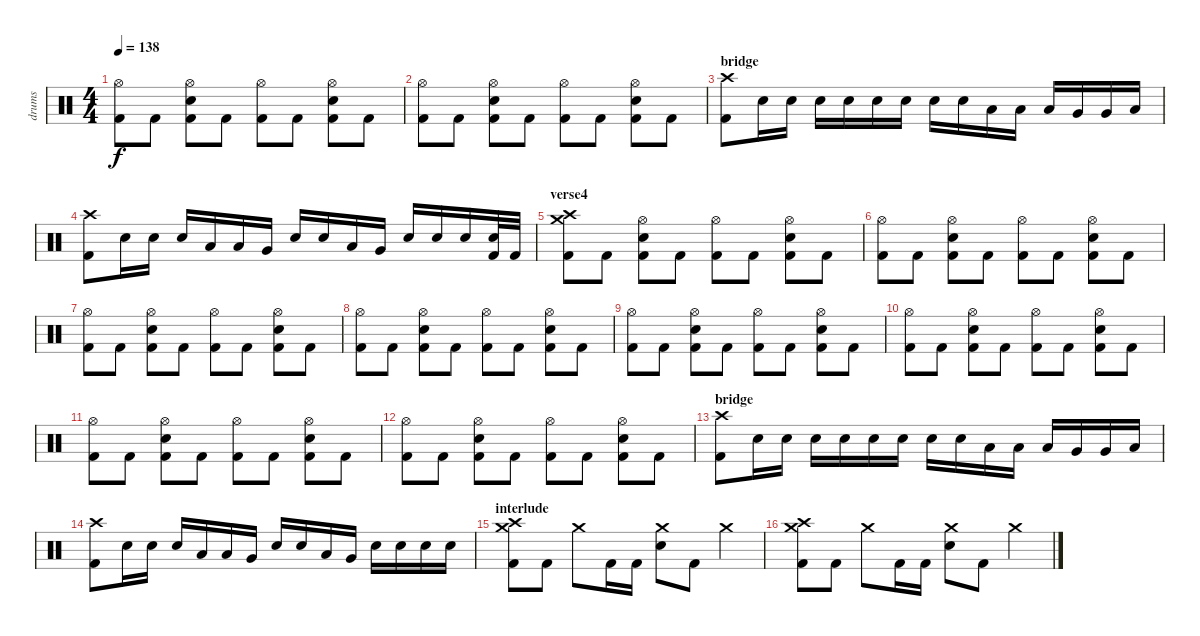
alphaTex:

\track ("drums" "drums") {instrument percussion}
\staff {score}
\articulation defaults
\ts (4 4)
\tempo 138
\clef neutral
\ks c
("Hi-Hat (open)" "Kick (hit) 2").8{dy f} "Kick (hit) 2".8 ("Hi-Hat (open)" "Electric Snare (hit)" "Kick (hit) 2").8 "Kick (hit) 2".8 ("Hi-Hat (open)" "Kick (hit) 2").8 "Kick (hit) 2".8 ("Hi-Hat (open)" "Electric Snare (hit)" "Kick (hit) 2").8 "Kick (hit) 2".8 |
("Hi-Hat (open)" "Kick (hit) 2").8 "Kick (hit) 2".8 ("Hi-Hat (open)" "Electric Snare (hit)" "Kick (hit) 2").8 "Kick (hit) 2".8 ("Hi-Hat (open)" "Kick (hit) 2").8 "Kick (hit) 2".8 ("Hi-Hat (open)" "Electric Snare (hit)" "Kick (hit) 2").8 "Kick (hit) 2".8 |
\section ("" "bridge")
("Crash high (hit)" "Kick (hit) 2").8 "Electric Snare (hit)".16 "Electric Snare (hit)".16 "Electric Snare (hit)".16 "Electric Snare (hit)".16 "Electric Snare (hit)".16 "Electric Snare (hit)".16 "Electric Snare (hit)".16 "Electric Snare (hit)".16 "Low Tom (hit)".16 "Low Tom (hit)".16 "Low Tom (hit)".16 "Very Low Tom (hit)".16 "Very Low Tom (hit)".16 "Low Floor Tom (hit)".16 |
("Crash high (hit)" "Kick (hit) 2").8 "Electric Snare (hit)".16 "Electric Snare (hit)".16 "Electric Snare (hit)".16 "Low Tom (hit)".16 "Low Tom (hit)".16 "Very Low Tom (hit)".16 "Electric Snare (hit)".16 "Electric Snare (hit)".16 "Low Tom (hit)".16 "Very Low Tom (hit)".16 "Electric Snare (hit)".16 "Electric Snare (hit)".16 "Electric Snare (hit)".16 ("Electric Snare (hit)" "Kick (hit) 2").32 "Kick (hit) 2".32 |
\section ("" "verse4")
("Crash high (hit)" "Crash medium (hit)" "Kick (hit) 2").8 "Kick (hit) 2".8 ("Hi-Hat (open)" "Electric Snare (hit)" "Kick (hit) 2").8 "Kick (hit) 2".8 ("Hi-Hat (open)" "Kick (hit) 2").8 "Kick (hit) 2".8 ("Hi-Hat (open)" "Electric Snare (hit)" "Kick (hit) 2").8 "Kick (hit) 2".8 |
("Hi-Hat (open)" "Kick (hit) 2").8 "Kick (hit) 2".8 ("Hi-Hat (open)" "Electric Snare (hit)" "Kick (hit) 2").8 "Kick (hit) 2".8 ("Hi-Hat (open)" "Kick (hit) 2").8 "Kick (hit) 2".8 ("Hi-Hat (open)" "Electric Snare (hit)" "Kick (hit) 2").8 "Kick (hit) 2".8 |
("Hi-Hat (open)" "Kick (hit) 2").8 "Kick (hit) 2".8 ("Hi-Hat (open)" "Electric Snare (hit)" "Kick (hit) 2").8 "Kick (hit) 2".8 ("Hi-Hat (open)" "Kick (hit) 2").8 "Kick (hit) 2".8 ("Hi-Hat (open)" "Electric Snare (hit)" "Kick (hit) 2").8 "Kick (hit) 2".8 |
("Hi-Hat (open)" "Kick (hit) 2").8 "Kick (hit) 2".8 ("Hi-Hat (open)" "Electric Snare (hit)" "Kick (hit) 2").8 "Kick (hit) 2".8 ("Hi-Hat (open)" "Kick (hit) 2").8 "Kick (hit) 2".8 ("Hi-Hat (open)" "Electric Snare (hit)" "Kick (hit) 2").8 "Kick (hit) 2".8 |
("Hi-Hat (open)" "Kick (hit) 2").8 "Kick (hit) 2".8 ("Hi-Hat (open)" "Electric Snare (hit)" "Kick (hit) 2").8 "Kick (hit) 2".8 ("Hi-Hat (open)" "Kick (hit) 2").8 "Kick (hit) 2".8 ("Hi-Hat (open)" "Electric Snare (hit)" "Kick (hit) 2").8 "Kick (hit) 2".8 |
("Hi-Hat (open)" "Kick (hit) 2").8 "Kick (hit) 2".8 ("Hi-Hat (open)" "Electric Snare (hit)" "Kick (hit) 2").8 "Kick (hit) 2".8 ("Hi-Hat (open)" "Kick (hit) 2").8 "Kick (hit) 2".8 ("Hi-Hat (open)" "Electric Snare (hit)" "Kick (hit) 2").8 "Kick (hit) 2".8 |
("Hi-Hat (open)" "Kick (hit) 2").8 "Kick (hit) 2".8 ("Hi-Hat (open)" "Electric Snare (hit)" "Kick (hit) 2").8 "Kick (hit) 2".8 ("Hi-Hat (open)" "Kick (hit) 2").8 "Kick (hit) 2".8 ("Hi-Hat (open)" "Electric Snare (hit)" "Kick (hit) 2").8 "Kick (hit) 2".8 |
("Hi-Hat (open)" "Kick (hit) 2").8 "Kick (hit) 2".8 ("Hi-Hat (open)" "Electric Snare (hit)" "Kick (hit) 2").8 "Kick (hit) 2".8 ("Hi-Hat (open)" "Kick (hit) 2").8 "Kick (hit) 2".8 ("Hi-Hat (open)" "Electric Snare (hit)" "Kick (hit) 2").8 "Kick (hit) 2".8 |
\section ("" "bridge")
("Crash high (hit)" "Kick (hit) 2").8 "Electric Snare (hit)".16 "Electric Snare (hit)".16 "Electric Snare (hit)".16 "Electric Snare (hit)".16 "Electric Snare (hit)".16 "Electric Snare (hit)".16 "Electric Snare (hit)".16 "Electric Snare (hit)".16 "Low Tom (hit)".16 "Low Tom (hit)".16 "Low Tom (hit)".16 "Very Low Tom (hit)".16 "Very Low Tom (hit)".16 "Low Floor Tom (hit)".16 |
("Crash high (hit)" "Kick (hit) 2").8 "Electric Snare (hit)".16 "Electric Snare (hit)".16 "Electric Snare (hit)".16 "Low Tom (hit)".16 "Low Tom (hit)".16 "Very Low Tom (hit)".16 "Electric Snare (hit)".16 "Electric Snare (hit)".16 "Low Tom (hit)".16 "Very Low Tom (hit)".16 "Electric Snare (hit)".16 "Electric Snare (hit)".16 "Electric Snare (hit)".16 "Electric Snare (hit)".16 |
\section ("" "interlude")
("Crash high (hit)" "Crash medium (hit)" "Kick (hit) 2").8 "Kick (hit) 2".8 "Crash medium (hit)".8 "Kick (hit) 2".16 "Kick (hit) 2".16 ("Crash medium (hit)" "Electric Snare (hit)").8 "Kick (hit) 2".8 "Crash medium (hit)".4 |
("Crash high (hit)" "Crash medium (hit)" "Kick (hit) 2").8 "Kick (hit) 2".8 "Crash medium (hit)".8 "Kick (hit) 2".16 "Kick (hit) 2".16 ("Crash medium (hit)" "Electric Snare (hit)").8 "Kick (hit) 2".8 "Crash medium (hit)".4
